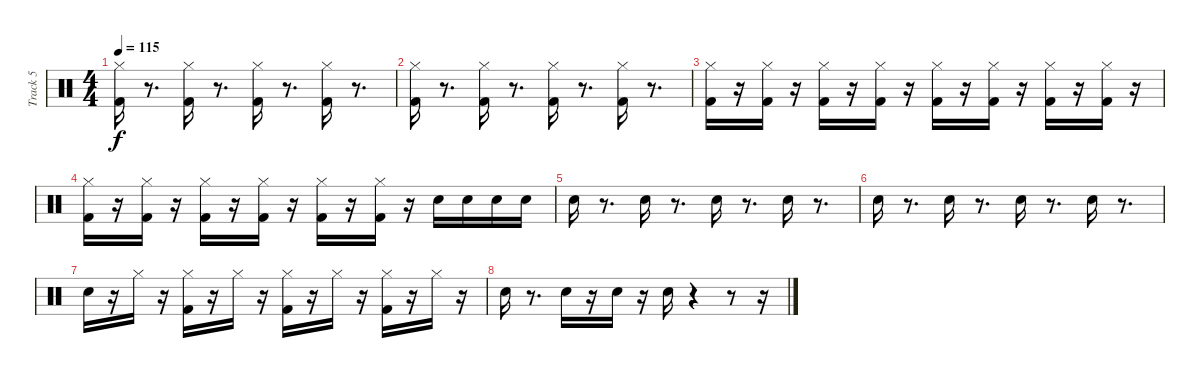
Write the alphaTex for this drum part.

\track ("Track 5" "Track 5") {instrument percussion}
\staff {score}
\articulation defaults
\ts (4 4)
\tempo 115
\clef neutral
\ks c
("Hi-Hat (closed)" "Kick (hit) 2").16{dy f} r.8{d} ("Hi-Hat (closed)" "Kick (hit) 2").16 r.8{d} ("Hi-Hat (closed)" "Kick (hit) 2").16 r.8{d} ("Hi-Hat (closed)" "Kick (hit) 2").16 r.8{d} |
("Hi-Hat (closed)" "Kick (hit) 2").16 r.8{d} ("Hi-Hat (closed)" "Kick (hit) 2").16 r.8{d} ("Hi-Hat (closed)" "Kick (hit) 2").16 r.8{d} ("Hi-Hat (closed)" "Kick (hit) 2").16 r.8{d} |
("Hi-Hat (closed)" "Kick (hit) 2").16 r.16 ("Hi-Hat (closed)" "Kick (hit) 2").16 r.16 ("Hi-Hat (closed)" "Kick (hit) 2").16 r.16 ("Hi-Hat (closed)" "Kick (hit) 2").16 r.16 ("Hi-Hat (closed)" "Kick (hit) 2").16 r.16 ("Hi-Hat (closed)" "Kick (hit) 2").16 r.16 ("Hi-Hat (closed)" "Kick (hit) 2").16 r.16 ("Hi-Hat (closed)" "Kick (hit) 2").16 r.16 |
("Hi-Hat (closed)" "Kick (hit) 2").16 r.16 ("Hi-Hat (closed)" "Kick (hit) 2").16 r.16 ("Hi-Hat (closed)" "Kick (hit) 2").16 r.16 ("Hi-Hat (closed)" "Kick (hit) 2").16 r.16 ("Hi-Hat (closed)" "Kick (hit) 2").16 r.16 ("Hi-Hat (closed)" "Kick (hit) 2").16 r.16 "Snare (hit) 2".16 "Snare (hit) 2".16 "Snare (hit) 2".16 "Snare (hit) 2".16 |
"Snare (hit) 2".16 r.8{d} "Snare (hit) 2".16 r.8{d} "Snare (hit) 2".16 r.8{d} "Snare (hit) 2".16 r.8{d} |
"Snare (hit) 2".16 r.8{d} "Snare (hit) 2".16 r.8{d} "Snare (hit) 2".16 r.8{d} "Snare (hit) 2".16 r.8{d} |
"Snare (hit) 2".16 r.16 "Hi-Hat (closed)".16 r.16 ("Hi-Hat (closed)" "Kick (hit) 2").16 r.16 "Hi-Hat (closed)".16 r.16 ("Hi-Hat (closed)" "Kick (hit) 2").16 r.16 "Hi-Hat (closed)".16 r.16 ("Hi-Hat (closed)" "Kick (hit) 2").16 r.16 "Hi-Hat (closed)".16 r.16 |
"Snare (hit) 2".16 r.8{d} "Snare (hit) 2".16 r.16 "Snare (hit) 2".16 r.16 "Snare (hit) 2".16 r.4 r.8 r.16
